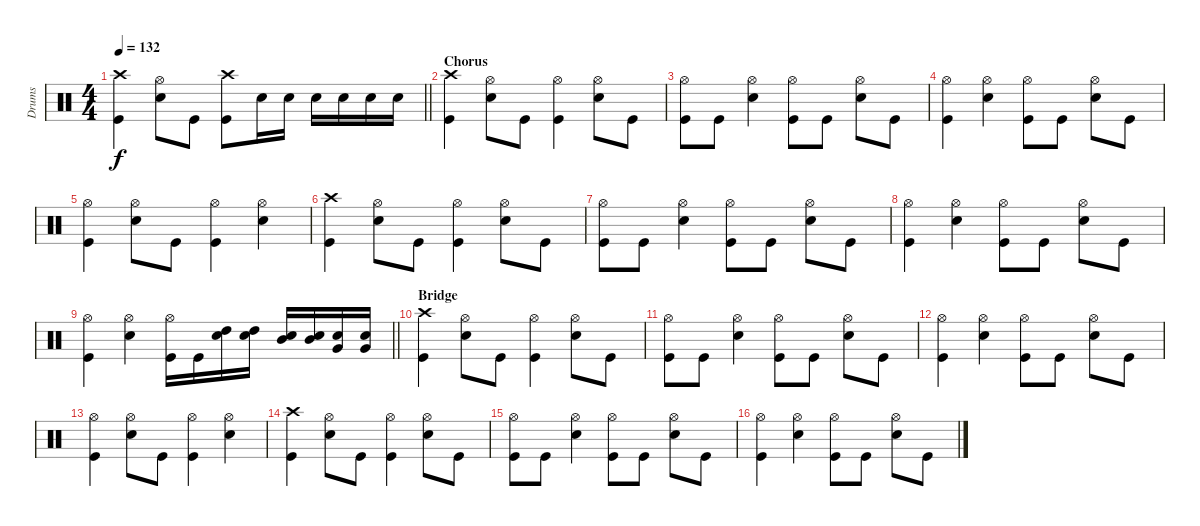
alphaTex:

\track ("Drums" "Drums") {instrument percussion}
\staff {score}
\articulation defaults
\ts (4 4)
\tempo 132
\clef neutral
\barLineRight lightlight
\ks c
("Crash high (hit)" "Kick (hit)").4{dy f} ("Hi-Hat (open)" "Electric Snare (hit)").8 "Kick (hit)".8 ("Crash high (hit)" "Kick (hit)").8 "Electric Snare (hit)".16 "Electric Snare (hit)".16 "Electric Snare (hit)".16 "Electric Snare (hit)".16 "Electric Snare (hit)".16 "Electric Snare (hit)".16 |
\section ("" "Chorus ")
("Crash high (hit)" "Kick (hit)").4 ("Hi-Hat (open)" "Electric Snare (hit)").8 "Kick (hit)".8 ("Hi-Hat (open)" "Kick (hit)").4 ("Hi-Hat (open)" "Electric Snare (hit)").8 "Kick (hit)".8 |
("Hi-Hat (open)" "Kick (hit)").8 "Kick (hit)".8 ("Hi-Hat (open)" "Electric Snare (hit)").4 ("Hi-Hat (open)" "Kick (hit)").8 "Kick (hit)".8 ("Hi-Hat (open)" "Electric Snare (hit)").8 "Kick (hit)".8 |
("Hi-Hat (open)" "Kick (hit)").4 ("Hi-Hat (open)" "Electric Snare (hit)").4 ("Hi-Hat (open)" "Kick (hit)").8 "Kick (hit)".8 ("Hi-Hat (open)" "Electric Snare (hit)").8 "Kick (hit)".8 |
("Hi-Hat (open)" "Kick (hit)").4 ("Hi-Hat (open)" "Electric Snare (hit)").8 "Kick (hit)".8 ("Hi-Hat (open)" "Kick (hit)").4 ("Hi-Hat (open)" "Electric Snare (hit)").4 |
("Crash high (hit)" "Kick (hit)").4 ("Hi-Hat (open)" "Electric Snare (hit)").8 "Kick (hit)".8 ("Hi-Hat (open)" "Kick (hit)").4 ("Hi-Hat (open)" "Electric Snare (hit)").8 "Kick (hit)".8 |
("Hi-Hat (open)" "Kick (hit)").8 "Kick (hit)".8 ("Hi-Hat (open)" "Electric Snare (hit)").4 ("Hi-Hat (open)" "Kick (hit)").8 "Kick (hit)".8 ("Hi-Hat (open)" "Electric Snare (hit)").8 "Kick (hit)".8 |
("Hi-Hat (open)" "Kick (hit)").4 ("Hi-Hat (open)" "Electric Snare (hit)").4 ("Hi-Hat (open)" "Kick (hit)").8 "Kick (hit)".8 ("Hi-Hat (open)" "Electric Snare (hit)").8 "Kick (hit)".8 |
\barLineRight lightlight
("Hi-Hat (open)" "Kick (hit)").4 ("Hi-Hat (open)" "Electric Snare (hit)").4 ("Hi-Hat (open)" "Kick (hit)").16 "Kick (hit)".16 ("High Tom (hit)" "Electric Snare (hit)").16 ("High Tom (hit)" "Electric Snare (hit)").16 ("Mid Tom (hit)" "Electric Snare (hit)").16 ("Mid Tom (hit)" "Electric Snare (hit)").16 ("Very Low Tom (hit)" "Electric Snare (hit)").16 ("Very Low Tom (hit)" "Electric Snare (hit)").16 |
\section ("" "Bridge ")
("Crash high (hit)" "Kick (hit)").4 ("Hi-Hat (open)" "Electric Snare (hit)").8 "Kick (hit)".8 ("Hi-Hat (open)" "Kick (hit)").4 ("Hi-Hat (open)" "Electric Snare (hit)").8 "Kick (hit)".8 |
("Hi-Hat (open)" "Kick (hit)").8 "Kick (hit)".8 ("Hi-Hat (open)" "Electric Snare (hit)").4 ("Hi-Hat (open)" "Kick (hit)").8 "Kick (hit)".8 ("Hi-Hat (open)" "Electric Snare (hit)").8 "Kick (hit)".8 |
("Hi-Hat (open)" "Kick (hit)").4 ("Hi-Hat (open)" "Electric Snare (hit)").4 ("Hi-Hat (open)" "Kick (hit)").8 "Kick (hit)".8 ("Hi-Hat (open)" "Electric Snare (hit)").8 "Kick (hit)".8 |
("Hi-Hat (open)" "Kick (hit)").4 ("Hi-Hat (open)" "Electric Snare (hit)").8 "Kick (hit)".8 ("Hi-Hat (open)" "Kick (hit)").4 ("Hi-Hat (open)" "Electric Snare (hit)").4 |
("Crash high (hit)" "Kick (hit)").4 ("Hi-Hat (open)" "Electric Snare (hit)").8 "Kick (hit)".8 ("Hi-Hat (open)" "Kick (hit)").4 ("Hi-Hat (open)" "Electric Snare (hit)").8 "Kick (hit)".8 |
("Hi-Hat (open)" "Kick (hit)").8 "Kick (hit)".8 ("Hi-Hat (open)" "Electric Snare (hit)").4 ("Hi-Hat (open)" "Kick (hit)").8 "Kick (hit)".8 ("Hi-Hat (open)" "Electric Snare (hit)").8 "Kick (hit)".8 |
("Hi-Hat (open)" "Kick (hit)").4 ("Hi-Hat (open)" "Electric Snare (hit)").4 ("Hi-Hat (open)" "Kick (hit)").8 "Kick (hit)".8 ("Hi-Hat (open)" "Electric Snare (hit)").8 "Kick (hit)".8
